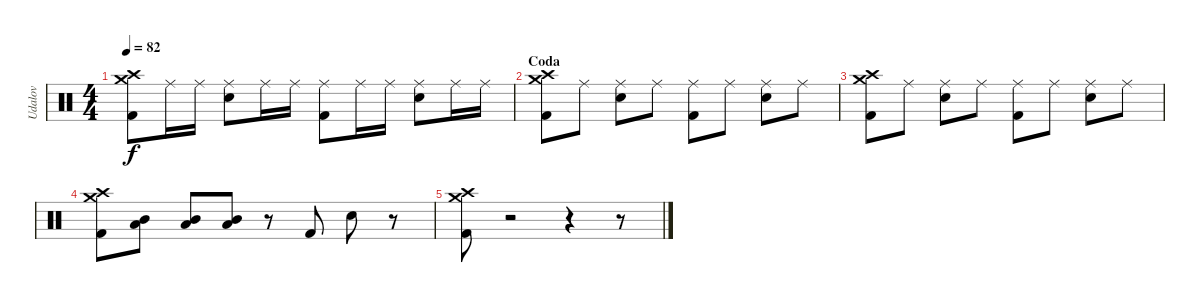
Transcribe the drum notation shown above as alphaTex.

\track ("Udalov" "Udalov") {instrument percussion}
\staff {score}
\articulation defaults
\ts (4 4)
\tempo 82
\clef neutral
\ks c
("Kick (hit) 2" "Crash high (hit)" "Crash medium (hit)").8{dy f} "Ride (middle)".16 "Ride (middle)".16 ("Snare (hit) 2" "Ride (middle)").8 "Ride (middle)".16 "Ride (middle)".16 ("Kick (hit) 2" "Ride (middle)").8 "Ride (middle)".16 "Ride (middle)".16 ("Snare (hit) 2" "Ride (middle)").8 "Ride (middle)".16 "Ride (middle)".16 |
\section ("" "Coda")
("Kick (hit) 2" "Crash high (hit)" "Crash medium (hit)").8 "Ride (middle)".8 ("Snare (hit) 2" "Ride (middle)").8 "Ride (middle)".8 ("Kick (hit) 2" "Ride (middle)").8 "Ride (middle)".8 ("Snare (hit) 2" "Ride (middle)").8 "Ride (middle)".8 |
("Kick (hit) 2" "Crash high (hit)" "Crash medium (hit)").8 "Ride (middle)".8 ("Snare (hit) 2" "Ride (middle)").8 "Ride (middle)".8 ("Kick (hit) 2" "Ride (middle)").8 "Ride (middle)".8 ("Snare (hit) 2" "Ride (middle)").8 "Ride (middle)".8 |
("Kick (hit) 2" "Crash high (hit)" "Crash medium (hit)").8 ("Low Tom (hit)" "Mid Tom (hit)").8 ("Mid Tom (hit)" "Low Tom (hit)").8 ("Low Tom (hit)" "Mid Tom (hit)").8 r.8 "Kick (hit) 2".8 "Snare (hit) 2".8 r.8 |
("Kick (hit) 2" "Crash medium (hit)" "Crash high (hit)").8 r.2 r.4 r.8
